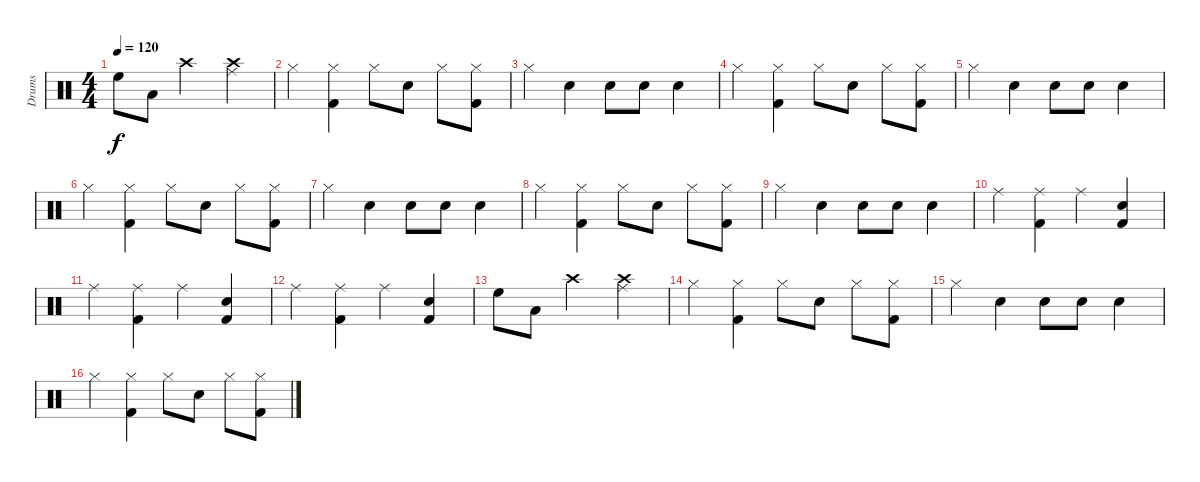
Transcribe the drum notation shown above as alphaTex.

\track ("Drums" "Drums") {instrument percussion}
\staff {score}
\articulation defaults
\ts (4 4)
\tempo 120
\clef neutral
\ks c "High Floor Tom (hit)".8{dy f} "Low Tom (hit)".8 "Crash high (hit)".2
("Ride (middle)" "Crash high (hit)").4 |
"Hi-Hat (closed)".4 ("Kick (hit) 2" "Hi-Hat (closed)").4 "Hi-Hat (closed)".8 "Snare (hit) 2".8 "Hi-Hat (closed)".8 ("Kick (hit) 2" "Hi-Hat (closed)").8 |
"Hi-Hat (closed)".4 "Snare (hit) 2".4 "Snare (hit) 2".8 "Snare (hit) 2".8 "Snare (hit) 2".4 |
"Hi-Hat (closed)".4 ("Kick (hit) 2" "Hi-Hat (closed)").4 "Hi-Hat (closed)".8 "Snare (hit) 2".8 "Hi-Hat (closed)".8 ("Kick (hit) 2" "Hi-Hat (closed)").8 |
"Hi-Hat (closed)".4 "Snare (hit) 2".4 "Snare (hit) 2".8 "Snare (hit) 2".8 "Snare (hit) 2".4 |
"Hi-Hat (closed)".4 ("Kick (hit) 2" "Hi-Hat (closed)").4 "Hi-Hat (closed)".8 "Snare (hit) 2".8 "Hi-Hat (closed)".8 ("Kick (hit) 2" "Hi-Hat (closed)").8 |
"Hi-Hat (closed)".4 "Snare (hit) 2".4 "Snare (hit) 2".8 "Snare (hit) 2".8 "Snare (hit) 2".4 |
"Hi-Hat (closed)".4 ("Kick (hit) 2" "Hi-Hat (closed)").4 "Hi-Hat (closed)".8 "Snare (hit) 2".8 "Hi-Hat (closed)".8 ("Kick (hit) 2" "Hi-Hat (closed)").8 |
"Hi-Hat (closed)".4 "Snare (hit) 2".4 "Snare (hit) 2".8 "Snare (hit) 2".8 "Snare (hit) 2".4 |
"Ride (middle)".4 ("Kick (hit) 2" "Ride (middle)").4 "Ride (middle)".4 ("Kick (hit) 2" "Snare (hit) 2").4 |
"Ride (middle)".4 ("Kick (hit) 2" "Ride (middle)").4 "Ride (middle)".4 ("Kick (hit) 2" "Snare (hit) 2").4 |
"Ride (middle)".4 ("Kick (hit) 2" "Ride (middle)").4 "Ride (middle)".4 ("Kick (hit) 2" "Snare (hit) 2").4 |
"High Floor Tom (hit)".8 "Low Tom (hit)".8 "Crash high (hit)".2 ("Ride (middle)" "Crash high (hit)").4 |
"Hi-Hat (closed)".4 ("Kick (hit) 2" "Hi-Hat (closed)").4 "Hi-Hat (closed)".8 "Snare (hit) 2".8 "Hi-Hat (closed)".8 ("Kick (hit) 2" "Hi-Hat (closed)").8 |
"Hi-Hat (closed)".4 "Snare (hit) 2".4 "Snare (hit) 2".8 "Snare (hit) 2".8 "Snare (hit) 2".4 |
"Hi-Hat (closed)".4 ("Kick (hit) 2" "Hi-Hat (closed)").4 "Hi-Hat (closed)".8 "Snare (hit) 2".8 "Hi-Hat (closed)".8 ("Kick (hit) 2" "Hi-Hat (closed)").8
